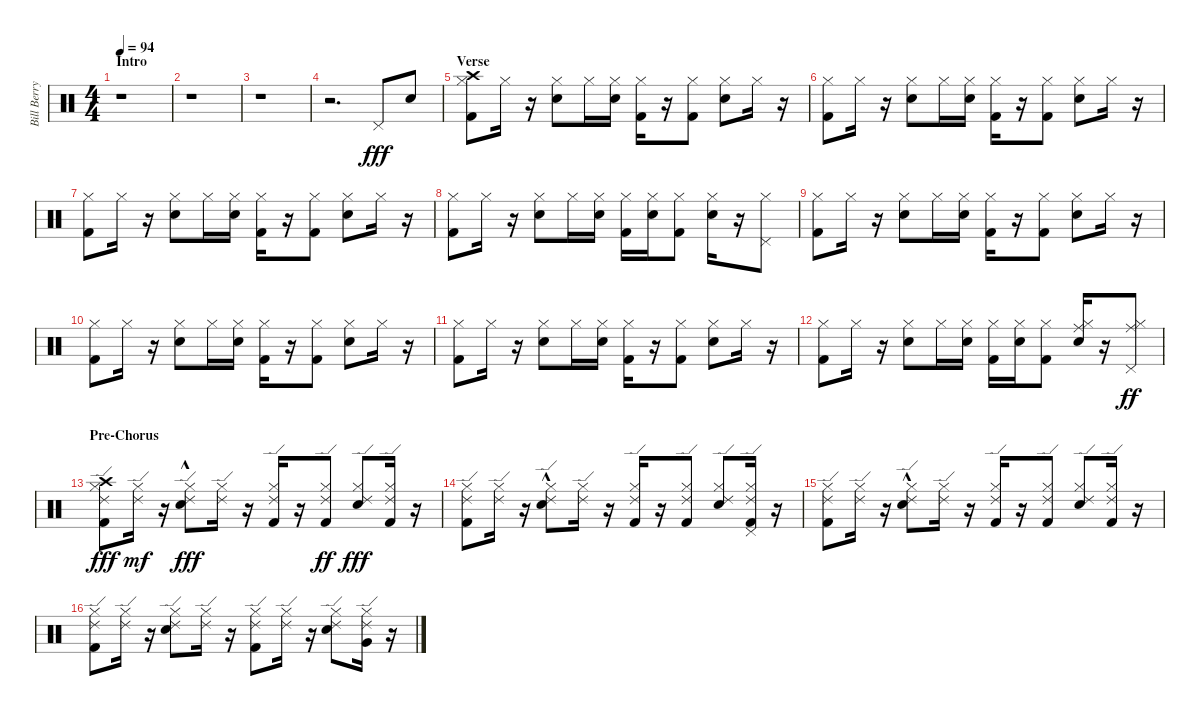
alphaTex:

\track ("Bill Berry (Drums)" "Bill Berry") {instrument percussion}
\staff {score}
\articulation defaults
\ts (4 4)
\section ("" "Intro")
\tempo 94
\clef neutral
\ks c
r.1{dy fff} |
r.1 |
r.1 |
r.2{d} "Pedal Hi-Hat (hit)".8 "Electric Snare (hit)".8 |
\section ("" "Verse")
("Kick (hit) 2" "Hi-Hat (closed)" "Crash high (hit)").8 "Hi-Hat (closed)".16 r.16 ("Electric Snare (hit)" "Hi-Hat (closed)").8 "Hi-Hat (closed)".16 ("Electric Snare (hit)" "Hi-Hat (closed)").16 ("Hi-Hat (closed)" "Kick (hit) 2").16 r.16 ("Kick (hit) 2" "Hi-Hat (closed)").8 ("Hi-Hat (closed)" "Electric Snare (hit)").8 "Hi-Hat (closed)".16 r.16 |
("Hi-Hat (closed)" "Kick (hit) 2").8 "Hi-Hat (closed)".16 r.16 ("Hi-Hat (closed)" "Electric Snare (hit)").8 "Hi-Hat (closed)".16 ("Electric Snare (hit)" "Hi-Hat (closed)").16 ("Hi-Hat (closed)" "Kick (hit) 2").16 r.16 ("Hi-Hat (closed)" "Kick (hit) 2").8 ("Hi-Hat (closed)" "Electric Snare (hit)").8 "Hi-Hat (closed)".16 r.16 |
("Hi-Hat (closed)" "Kick (hit) 2").8 "Hi-Hat (closed)".16 r.16 ("Hi-Hat (closed)" "Electric Snare (hit)").8 "Hi-Hat (closed)".16 ("Electric Snare (hit)" "Hi-Hat (closed)").16 ("Hi-Hat (closed)" "Kick (hit) 2").16 r.16 ("Hi-Hat (closed)" "Kick (hit) 2").8 ("Electric Snare (hit)" "Hi-Hat (closed)").8 "Hi-Hat (closed)".16 r.16 |
("Kick (hit) 2" "Hi-Hat (closed)").8 "Hi-Hat (closed)".16 r.16 ("Electric Snare (hit)" "Hi-Hat (closed)").8 "Hi-Hat (closed)".16 ("Electric Snare (hit)" "Hi-Hat (closed)").16 ("Kick (hit) 2" "Hi-Hat (closed)").16 ("Electric Snare (hit)" "Hi-Hat (closed)").16 ("Hi-Hat (closed)" "Kick (hit) 2").8 ("Electric Snare (hit)" "Hi-Hat (closed)").16 r.16 ("Pedal Hi-Hat (hit)" "Hi-Hat (closed)").8 |
("Kick (hit) 2" "Hi-Hat (closed)").8 "Hi-Hat (closed)".16 r.16 ("Electric Snare (hit)" "Hi-Hat (closed)").8 "Hi-Hat (closed)".16 ("Electric Snare (hit)" "Hi-Hat (closed)").16 ("Hi-Hat (closed)" "Kick (hit) 2").16 r.16 ("Kick (hit) 2" "Hi-Hat (closed)").8 ("Electric Snare (hit)" "Hi-Hat (closed)").8 "Hi-Hat (closed)".16 r.16 |
("Kick (hit) 2" "Hi-Hat (closed)").8 "Hi-Hat (closed)".16 r.16 ("Hi-Hat (closed)" "Electric Snare (hit)").8 "Hi-Hat (closed)".16 ("Electric Snare (hit)" "Hi-Hat (closed)").16 ("Hi-Hat (closed)" "Kick (hit) 2").16 r.16 ("Hi-Hat (closed)" "Kick (hit) 2").8 ("Electric Snare (hit)" "Hi-Hat (closed)").8 "Hi-Hat (closed)".16 r.16 |
("Hi-Hat (closed)" "Kick (hit) 2").8 "Hi-Hat (closed)".16 r.16 ("Hi-Hat (closed)" "Electric Snare (hit)").8 "Hi-Hat (closed)".16 ("Electric Snare (hit)" "Hi-Hat (closed)").16 ("Hi-Hat (closed)" "Kick (hit) 2").16 r.16 ("Hi-Hat (closed)" "Kick (hit) 2").8 ("Electric Snare (hit)" "Hi-Hat (closed)").8 "Hi-Hat (closed)".16 r.16 |
("Kick (hit) 2" "Hi-Hat (closed)").8 "Hi-Hat (closed)".16 r.16 ("Electric Snare (hit)" "Hi-Hat (closed)").8 "Hi-Hat (closed)".16 ("Electric Snare (hit)" "Hi-Hat (closed)").16 ("Hi-Hat (closed)" "Kick (hit) 2").16 ("Electric Snare (hit)" "Hi-Hat (closed)").16 ("Hi-Hat (closed)" "Kick (hit) 2").8 ("Electric Snare (hit)" "Hi-Hat (closed)" "Ride (middle)").16 r.16 ("Pedal Hi-Hat (hit)" "Hi-Hat (closed)" "Ride (middle)").8{dy ff} |
\section ("" "Pre-Chorus")
("Kick (hit) 2" "Crash high (hit)" "Hi-Hat (closed)" "Ride (edge) 2").8{dy fff} ("Hi-Hat (closed)" "Ride (edge) 2").16{dy mf} r.16 ("Ride (edge) 2" "Hi-Hat (closed)" "Electric Snare (hit)"{hac}).8{dy fff} ("Ride (edge) 2" "Hi-Hat (closed)").16 r.16 ("Ride (edge) 2" "Kick (hit) 2" "Hi-Hat (closed)").16 r.16 ("Ride (edge) 2" "Kick (hit) 2" "Hi-Hat (closed)").8{dy ff} ("Ride (edge) 2" "Electric Snare (hit)" "Hi-Hat (closed)").8{dy fff} ("Ride (edge) 2" "Kick (hit) 2" "Hi-Hat (closed)").16 r.16 |
("Kick (hit) 2" "Ride (edge) 2" "Hi-Hat (closed)").8 ("Hi-Hat (closed)" "Ride (edge) 2").16 r.16 ("Electric Snare (hit)"{hac} "Ride (edge) 2" "Hi-Hat (closed)").8 ("Ride (edge) 2" "Hi-Hat (closed)").16 r.16 ("Ride (edge) 2" "Hi-Hat (closed)" "Kick (hit) 2").16 r.16 ("Ride (edge) 2" "Hi-Hat (closed)" "Kick (hit) 2").8 ("Ride (edge) 2" "Electric Snare (hit)" "Hi-Hat (closed)").8 ("Hi-Hat (closed)" "Pedal Hi-Hat (hit)" "Kick (hit) 2" "Ride (edge) 2").16 r.16 |
("Kick (hit) 2" "Ride (edge) 2" "Hi-Hat (closed)").8 ("Ride (edge) 2" "Hi-Hat (closed)").16 r.16 ("Electric Snare (hit)"{hac} "Ride (edge) 2" "Hi-Hat (closed)").8 ("Ride (edge) 2" "Hi-Hat (closed)").16 r.16 ("Kick (hit) 2" "Ride (edge) 2" "Hi-Hat (closed)").16 r.16 ("Ride (edge) 2" "Kick (hit) 2" "Hi-Hat (closed)").8 ("Ride (edge) 2" "Electric Snare (hit)" "Hi-Hat (closed)").8 ("Ride (edge) 2" "Hi-Hat (closed)" "Kick (hit) 2").16 r.16 |
("Ride (edge) 2" "Kick (hit) 2" "Hi-Hat (closed)").8 ("Ride (edge) 2" "Hi-Hat (closed)").16 r.16 ("Ride (edge) 2" "Electric Snare (hit)" "Hi-Hat (closed)").8 ("Ride (edge) 2" "Hi-Hat (closed)").16 r.16 ("Ride (edge) 2" "Kick (hit) 2" "Hi-Hat (closed)").8 ("Ride (edge) 2" "Hi-Hat (closed)").16 r.16 ("Electric Snare (hit)" "Ride (edge) 2" "Hi-Hat (closed)").8 ("Very Low Tom (hit)" "Hi-Hat (closed)" "Ride (edge) 2").16 r.16
